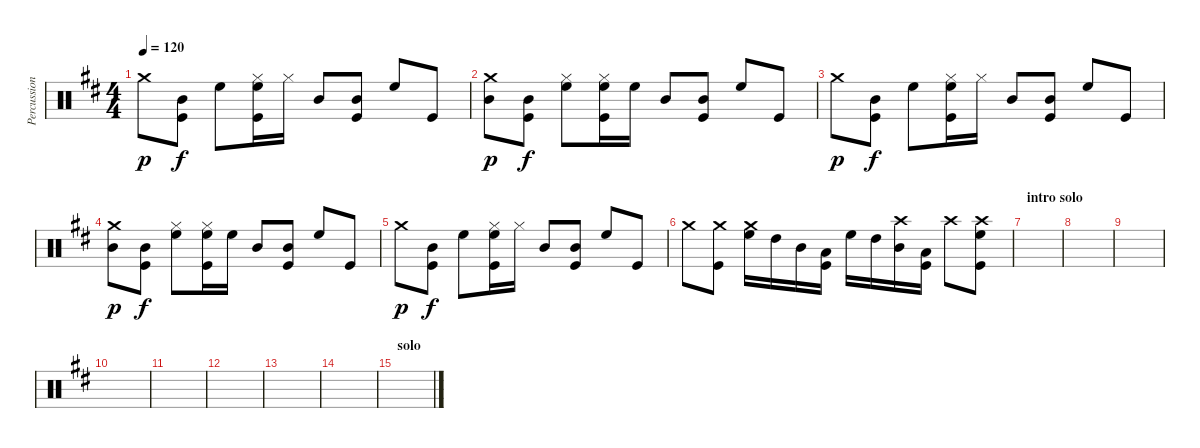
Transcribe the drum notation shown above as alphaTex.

\track ("Percussions" "Percussion") {instrument percussion}
\staff {score}
\articulation defaults
\ts (4 4)
\tempo 120
\clef neutral
\ks d "Crash medium (hit)".8{dy p}
("Mid Tom (hit)" "Kick (hit)").8{dy f} "High Floor Tom (hit)".8 ("Hi-Hat (closed)" "High Floor Tom (hit)" "Kick (hit)").16 "Hi-Hat (closed)".16 "Mid Tom (hit)".8 ("Mid Tom (hit)" "Kick (hit)").8 "High Floor Tom (hit)".8 "Kick (hit)".8 |
("Crash medium (hit)" "Mid Tom (hit)").8{dy p} ("Mid Tom (hit)" "Kick (hit)").8{dy f} ("Hi-Hat (closed)" "High Floor Tom (hit)").8 ("Hi-Hat (closed)" "High Floor Tom (hit)" "Kick (hit)").16 "High Floor Tom (hit)".16 "Mid Tom (hit)".8 ("Mid Tom (hit)" "Kick (hit)").8 "High Floor Tom (hit)".8 "Kick (hit)".8 |
"Crash medium (hit)".8{dy p} ("Mid Tom (hit)" "Kick (hit)").8{dy f} "High Floor Tom (hit)".8 ("Hi-Hat (closed)" "High Floor Tom (hit)" "Kick (hit)").16 "Hi-Hat (closed)".16 "Mid Tom (hit)".8 ("Mid Tom (hit)" "Kick (hit)").8 "High Floor Tom (hit)".8 "Kick (hit)".8 |
("Crash medium (hit)" "Mid Tom (hit)").8{dy p} ("Mid Tom (hit)" "Kick (hit)").8{dy f} ("Hi-Hat (closed)" "High Floor Tom (hit)").8 ("Hi-Hat (closed)" "High Floor Tom (hit)" "Kick (hit)").16 "High Floor Tom (hit)".16 "Mid Tom (hit)".8 ("Mid Tom (hit)" "Kick (hit)").8 "High Floor Tom (hit)".8 "Kick (hit)".8 |
"Crash medium (hit)".8{dy p} ("Mid Tom (hit)" "Kick (hit)").8{dy f} "High Floor Tom (hit)".8 ("Hi-Hat (closed)" "High Floor Tom (hit)" "Kick (hit)").16 "Hi-Hat (closed)".16 "Mid Tom (hit)".8 ("Mid Tom (hit)" "Kick (hit)").8 "High Floor Tom (hit)".8 "Kick (hit)".8 |
"Crash medium (hit)".8 ("Crash medium (hit)" "Kick (hit)").8 ("Crash medium (hit)" "High Floor Tom (hit)").16 "High Tom (hit)".16 "Mid Tom (hit)".16 ("Low Tom (hit)" "Kick (hit)").16 "High Floor Tom (hit)".16 "High Tom (hit)".16 ("Crash high (hit)" "Mid Tom (hit)").16 ("Low Tom (hit)" "Kick (hit)").16 "Crash high (hit)".8 ("Crash high (hit)" "High Floor Tom (hit)" "Kick (hit)").8 |
\section ("" "intro solo")
|
|
|
|
|
|
|
|
\section ("" "solo")
